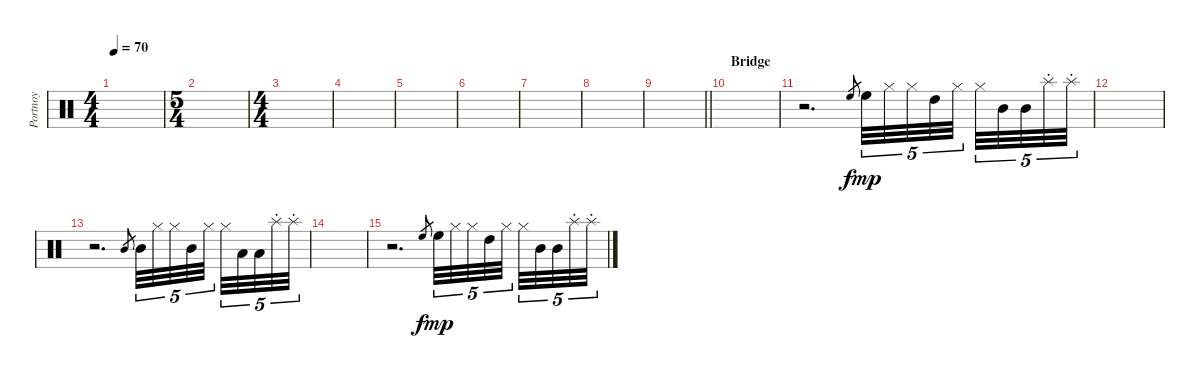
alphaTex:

\track ("Portnoy" "Portnoy") {instrument percussion}
\staff {score}
\articulation defaults
\ts (4 4)
\tempo 70
\clef neutral
\ks c
|
\ts (5 4)
|
\ts (4 4)
|
|
|
|
|
|
\barLineRight lightlight
|
\section ("" "Bridge")
|
r.2{d} "High Floor Tom (hit)".8{gr} "High Floor Tom (hit)".32{tu (5 4) dy mp} "Hi-Hat (closed)".32{tu (5 4)} "Hi-Hat (closed)".32{tu (5 4)} "High Tom (hit)".32{tu (5 4)} "Hi-Hat (closed)".32{tu (5 4) beam splitsecondary} "Hi-Hat (closed)".32{tu (5 4)} "Mid Tom (hit)".32{tu (5 4)} "Mid Tom (hit)".32{tu (5 4)} "Splash (hit)"{st}.32{tu (5 4)} "Splash (hit)"{st}.32{tu (5 4)} |
|
r.2{d} "Mid Tom (hit)".8{gr} "Mid Tom (hit)".32{tu (5 4)} "Hi-Hat (closed)".32{tu (5 4)} "Hi-Hat (closed)".32{tu (5 4)} "Mid Tom (hit)".32{tu (5 4)} "Hi-Hat (closed)".32{tu (5 4) beam splitsecondary} "Hi-Hat (closed)".32{tu (5 4)} "Low Tom (hit)".32{tu (5 4)} "Low Tom (hit)".32{tu (5 4)} "Splash (hit)"{st}.32{tu (5 4)} "Splash (hit)"{st}.32{tu (5 4)} |
|
r.2{d} "High Floor Tom (hit)".8{gr dy f} "High Floor Tom (hit)".32{tu (5 4) dy mp} "Hi-Hat (closed)".32{tu (5 4)} "Hi-Hat (closed)".32{tu (5 4)} "High Tom (hit)".32{tu (5 4)} "Hi-Hat (closed)".32{tu (5 4) beam splitsecondary} "Hi-Hat (closed)".32{tu (5 4)} "Mid Tom (hit)".32{tu (5 4)} "Mid Tom (hit)".32{tu (5 4)} "Splash (hit)"{st}.32{tu (5 4)} "Splash (hit)"{st}.32{tu (5 4)}
